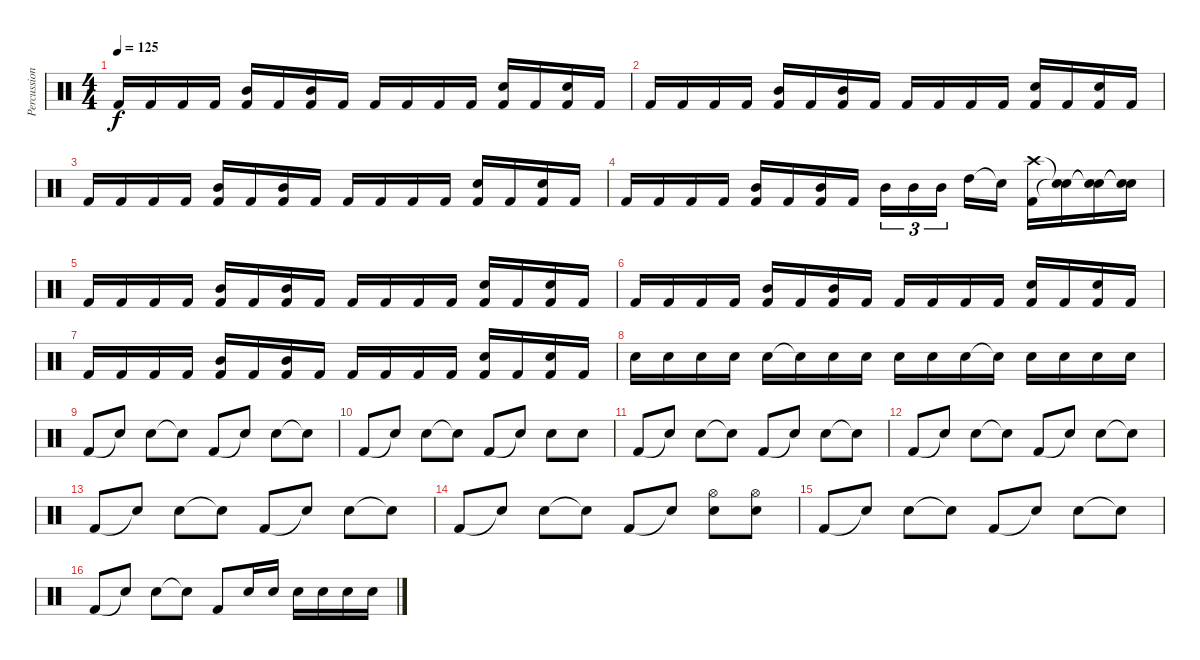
\track ("Percussion" "Percussion") {instrument percussion}
\staff {score}
\articulation defaults
\ts (4 4)
\tempo 125
\clef neutral
\ks c "Kick (hit) 2".16{dy f} "Kick (hit) 2".16 "Kick (hit) 2".16 "Kick (hit) 2".16
("Kick (hit) 2" "Mid Tom (hit)").16 "Kick (hit) 2".16 ("Kick (hit) 2" "Mid Tom (hit)").16 "Kick (hit) 2".16 "Kick (hit) 2".16 "Kick (hit) 2".16 "Kick (hit) 2".16 "Kick (hit) 2".16 ("Kick (hit) 2" "Snare (hit) 2").16 "Kick (hit) 2".16 ("Kick (hit) 2" "Snare (hit) 2").16 "Kick (hit) 2".16 |
"Kick (hit) 2".16 "Kick (hit) 2".16 "Kick (hit) 2".16 "Kick (hit) 2".16 ("Kick (hit) 2" "Mid Tom (hit)").16 "Kick (hit) 2".16 ("Kick (hit) 2" "Mid Tom (hit)").16 "Kick (hit) 2".16 "Kick (hit) 2".16 "Kick (hit) 2".16 "Kick (hit) 2".16 "Kick (hit) 2".16 ("Kick (hit) 2" "Snare (hit) 2").16 "Kick (hit) 2".16 ("Kick (hit) 2" "Snare (hit) 2").16 "Kick (hit) 2".16 |
"Kick (hit) 2".16 "Kick (hit) 2".16 "Kick (hit) 2".16 "Kick (hit) 2".16 ("Kick (hit) 2" "Mid Tom (hit)").16 "Kick (hit) 2".16 ("Kick (hit) 2" "Mid Tom (hit)").16 "Kick (hit) 2".16 "Kick (hit) 2".16 "Kick (hit) 2".16 "Kick (hit) 2".16 "Kick (hit) 2".16 ("Kick (hit) 2" "Snare (hit) 2").16 "Kick (hit) 2".16 ("Kick (hit) 2" "Snare (hit) 2").16 "Kick (hit) 2".16 |
"Kick (hit) 2".16 "Kick (hit) 2".16 "Kick (hit) 2".16 "Kick (hit) 2".16 ("Kick (hit) 2" "Mid Tom (hit)").16 "Kick (hit) 2".16 ("Kick (hit) 2" "Mid Tom (hit)").16 "Kick (hit) 2".16 "Mid Tom (hit)".16{tu (3 2)} "Mid Tom (hit)".16{tu (3 2)} "Mid Tom (hit)".16{tu (3 2)} "High Tom (hit)".16 "Snare (hit)"{t}.16 ("Kick (hit) 2" "Crash high (hit)").16 ("Snare (hit)"{t} "Snare (hit)"{t}).16 ("Snare (hit)"{t} "Snare (hit)"{t}).16 ("Snare (hit)"{t} "Snare (hit)"{t}).16 |
"Kick (hit) 2".16 "Kick (hit) 2".16 "Kick (hit) 2".16 "Kick (hit) 2".16 ("Kick (hit) 2" "Mid Tom (hit)").16 "Kick (hit) 2".16 ("Kick (hit) 2" "Mid Tom (hit)").16 "Kick (hit) 2".16 "Kick (hit) 2".16 "Kick (hit) 2".16 "Kick (hit) 2".16 "Kick (hit) 2".16 ("Kick (hit) 2" "Snare (hit) 2").16 "Kick (hit) 2".16 ("Kick (hit) 2" "Snare (hit) 2").16 "Kick (hit) 2".16 |
"Kick (hit) 2".16 "Kick (hit) 2".16 "Kick (hit) 2".16 "Kick (hit) 2".16 ("Kick (hit) 2" "Mid Tom (hit)").16 "Kick (hit) 2".16 ("Kick (hit) 2" "Mid Tom (hit)").16 "Kick (hit) 2".16 "Kick (hit) 2".16 "Kick (hit) 2".16 "Kick (hit) 2".16 "Kick (hit) 2".16 ("Kick (hit) 2" "Snare (hit) 2").16 "Kick (hit) 2".16 ("Kick (hit) 2" "Snare (hit) 2").16 "Kick (hit) 2".16 |
"Kick (hit) 2".16 "Kick (hit) 2".16 "Kick (hit) 2".16 "Kick (hit) 2".16 ("Kick (hit) 2" "Mid Tom (hit)").16 "Kick (hit) 2".16 ("Kick (hit) 2" "Mid Tom (hit)").16 "Kick (hit) 2".16 "Kick (hit) 2".16 "Kick (hit) 2".16 "Kick (hit) 2".16 "Kick (hit) 2".16 ("Kick (hit) 2" "Snare (hit) 2").16 "Kick (hit) 2".16 ("Kick (hit) 2" "Snare (hit) 2").16 "Kick (hit) 2".16 |
"Snare (hit) 2".16 "Snare (hit) 2".16 "Snare (hit) 2".16 "Snare (hit) 2".16 "Snare (hit) 2".16 "Snare (hit)"{t}.16 "Snare (hit) 2".16 "Snare (hit) 2".16 "Snare (hit) 2".16 "Snare (hit) 2".16 "Snare (hit) 2".16 "Snare (hit)"{t}.16 "Snare (hit) 2".16 "Snare (hit) 2".16 "Snare (hit) 2".16 "Snare (hit) 2".16 |
"Kick (hit) 2".8 "Snare (hit)"{t}.8 "Snare (hit) 2".8 "Snare (hit)"{t}.8 "Kick (hit) 2".8 "Snare (hit)"{t}.8 "Snare (hit) 2".8 "Snare (hit)"{t}.8 |
"Kick (hit) 2".8 "Snare (hit)"{t}.8 "Snare (hit) 2".8 "Snare (hit)"{t}.8 "Kick (hit) 2".8 "Snare (hit)"{t}.8 "Snare (hit) 2".8 "Snare (hit) 2".8 |
"Kick (hit) 2".8 "Snare (hit)"{t}.8 "Snare (hit) 2".8 "Snare (hit)"{t}.8 "Kick (hit) 2".8 "Snare (hit)"{t}.8 "Snare (hit) 2".8 "Snare (hit)"{t}.8 |
"Kick (hit) 2".8 "Snare (hit)"{t}.8 "Snare (hit) 2".8 "Snare (hit)"{t}.8 "Kick (hit) 2".8 "Snare (hit)"{t}.8 "Snare (hit) 2".8 "Snare (hit)"{t}.8 |
"Kick (hit) 2".8 "Snare (hit)"{t}.8 "Snare (hit) 2".8 "Snare (hit)"{t}.8 "Kick (hit) 2".8 "Snare (hit)"{t}.8 "Snare (hit) 2".8 "Snare (hit)"{t}.8 |
"Kick (hit) 2".8 "Snare (hit)"{t}.8 "Snare (hit) 2".8 "Snare (hit)"{t}.8 "Kick (hit) 2".8 "Snare (hit)"{t}.8 ("Snare (hit) 2" "Hi-Hat (open)").8 ("Snare (hit) 2" "Hi-Hat (open)").8 |
"Kick (hit) 2".8 "Snare (hit)"{t}.8 "Snare (hit) 2".8 "Snare (hit)"{t}.8 "Kick (hit) 2".8 "Snare (hit)"{t}.8 "Snare (hit) 2".8 "Snare (hit)"{t}.8 |
"Kick (hit) 2".8 "Snare (hit)"{t}.8 "Snare (hit) 2".8 "Snare (hit)"{t}.8 "Kick (hit) 2".8 "Snare (hit) 2".16 "Snare (hit) 2".16 "Snare (hit) 2".16 "Snare (hit) 2".16 "Snare (hit) 2".16 "Snare (hit) 2".16
